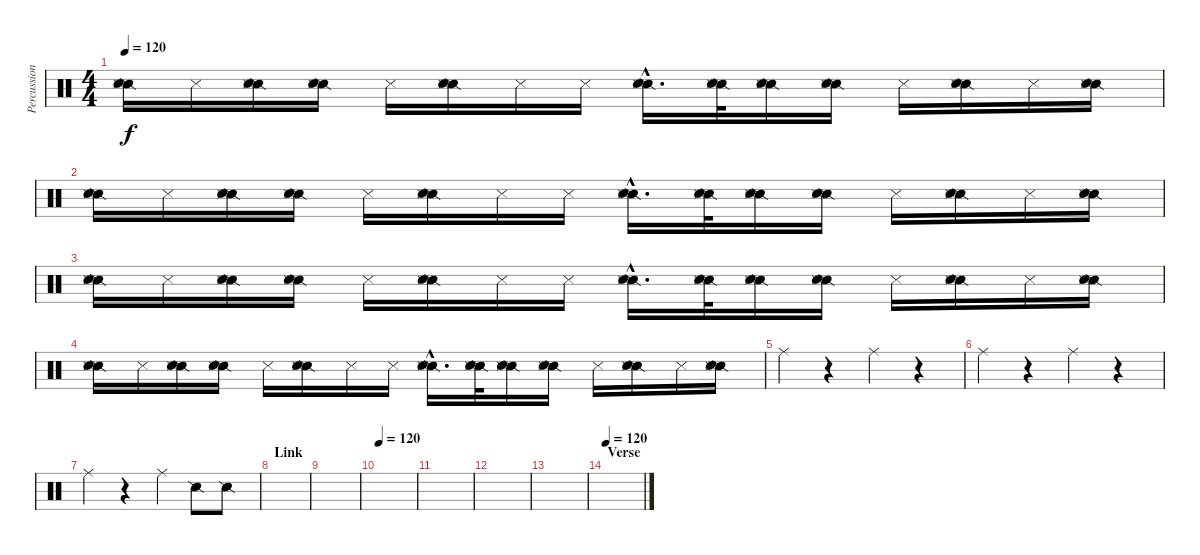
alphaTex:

\track ("Percussion" "Percussion") {instrument percussion}
\staff {score}
\articulation defaults
\ts (4 4)
\tempo 120
\clef neutral
\ks c
("Snare (side stick) 2" "Snare (hit) 2" "Metronome (hit)"{x}).16{dy f} "Metronome (hit)"{x}.16 ("Snare (side stick) 2" "Snare (hit) 2" "Metronome (hit)"{x}).16 ("Snare (side stick) 2" "Snare (hit) 2" "Metronome (hit)"{x}).16 "Metronome (hit)"{x}.16 ("Snare (side stick) 2" "Snare (hit) 2" "Metronome (hit)"{x}).16 "Metronome (hit)"{x}.16 "Metronome (hit)"{x}.16 ("Snare (side stick) 2"{hac} "Snare (hit) 2"{hac} "Metronome (hit)"{hac x}).16{d} ("Snare (side stick) 2" "Snare (hit) 2" "Metronome (hit)"{x}).32 ("Snare (side stick) 2" "Snare (hit) 2" "Metronome (hit)"{x}).16 ("Snare (side stick) 2" "Snare (hit) 2" "Metronome (hit)"{x}).16 "Metronome (hit)"{x}.16 ("Snare (side stick) 2" "Snare (hit) 2" "Metronome (hit)"{x}).16 "Metronome (hit)"{x}.16 ("Snare (side stick) 2" "Snare (hit) 2" "Metronome (hit)"{x}).16 |
("Snare (side stick) 2" "Snare (hit) 2" "Metronome (hit)"{x}).16 "Metronome (hit)"{x}.16 ("Snare (side stick) 2" "Snare (hit) 2" "Metronome (hit)"{x}).16 ("Snare (side stick) 2" "Snare (hit) 2" "Metronome (hit)"{x}).16 "Metronome (hit)"{x}.16 ("Snare (side stick) 2" "Snare (hit) 2" "Metronome (hit)"{x}).16 "Metronome (hit)"{x}.16 "Metronome (hit)"{x}.16 ("Snare (side stick) 2"{hac} "Snare (hit) 2"{hac} "Metronome (hit)"{hac x}).16{d} ("Snare (side stick) 2" "Snare (hit) 2" "Metronome (hit)"{x}).32 ("Snare (side stick) 2" "Snare (hit) 2" "Metronome (hit)"{x}).16 ("Snare (side stick) 2" "Snare (hit) 2" "Metronome (hit)"{x}).16 "Metronome (hit)"{x}.16 ("Snare (side stick) 2" "Snare (hit) 2" "Metronome (hit)"{x}).16 "Metronome (hit)"{x}.16 ("Snare (side stick) 2" "Snare (hit) 2" "Metronome (hit)"{x}).16 |
("Snare (side stick) 2" "Snare (hit) 2" "Metronome (hit)"{x}).16 "Metronome (hit)"{x}.16 ("Snare (side stick) 2" "Snare (hit) 2" "Metronome (hit)"{x}).16 ("Snare (side stick) 2" "Snare (hit) 2" "Metronome (hit)"{x}).16 "Metronome (hit)"{x}.16 ("Snare (side stick) 2" "Snare (hit) 2" "Metronome (hit)"{x}).16 "Metronome (hit)"{x}.16 "Metronome (hit)"{x}.16 ("Snare (side stick) 2"{hac} "Snare (hit) 2"{hac} "Metronome (hit)"{hac x}).16{d} ("Snare (side stick) 2" "Snare (hit) 2" "Metronome (hit)"{x}).32 ("Snare (side stick) 2" "Snare (hit) 2" "Metronome (hit)"{x}).16 ("Snare (side stick) 2" "Snare (hit) 2" "Metronome (hit)"{x}).16 "Metronome (hit)"{x}.16 ("Snare (side stick) 2" "Snare (hit) 2" "Metronome (hit)"{x}).16 "Metronome (hit)"{x}.16 ("Snare (side stick) 2" "Snare (hit) 2" "Metronome (hit)"{x}).16 |
("Snare (side stick) 2" "Snare (hit) 2" "Metronome (hit)"{x}).16 "Metronome (hit)"{x}.16 ("Snare (side stick) 2" "Snare (hit) 2" "Metronome (hit)"{x}).16 ("Snare (side stick) 2" "Snare (hit) 2" "Metronome (hit)"{x}).16 "Metronome (hit)"{x}.16 ("Snare (side stick) 2" "Snare (hit) 2" "Metronome (hit)"{x}).16 "Metronome (hit)"{x}.16 "Metronome (hit)"{x}.16 ("Snare (side stick) 2"{hac} "Snare (hit) 2"{hac} "Metronome (hit)"{hac x}).16{d} ("Snare (side stick) 2" "Snare (hit) 2" "Metronome (hit)"{x}).32 ("Snare (side stick) 2" "Snare (hit) 2" "Metronome (hit)"{x}).16 ("Snare (side stick) 2" "Snare (hit) 2" "Metronome (hit)"{x}).16 "Metronome (hit)"{x}.16 ("Snare (side stick) 2" "Snare (hit) 2" "Metronome (hit)"{x}).16 "Metronome (hit)"{x}.16 ("Snare (side stick) 2" "Snare (hit) 2" "Metronome (hit)"{x}).16 |
"Ride (middle)".4 r.4 "Ride (middle)".4 r.4 |
"Ride (middle)".4 r.4 "Ride (middle)".4 r.4 |
"Ride (middle)".4 r.4 "Ride (middle)".4 "Snare (side stick) 2".8 "Snare (side stick) 2".8 |
\section ("" "Link")
|
|
\tempo 120
|
|
|
|
\section ("" "Verse")
\tempo 120
